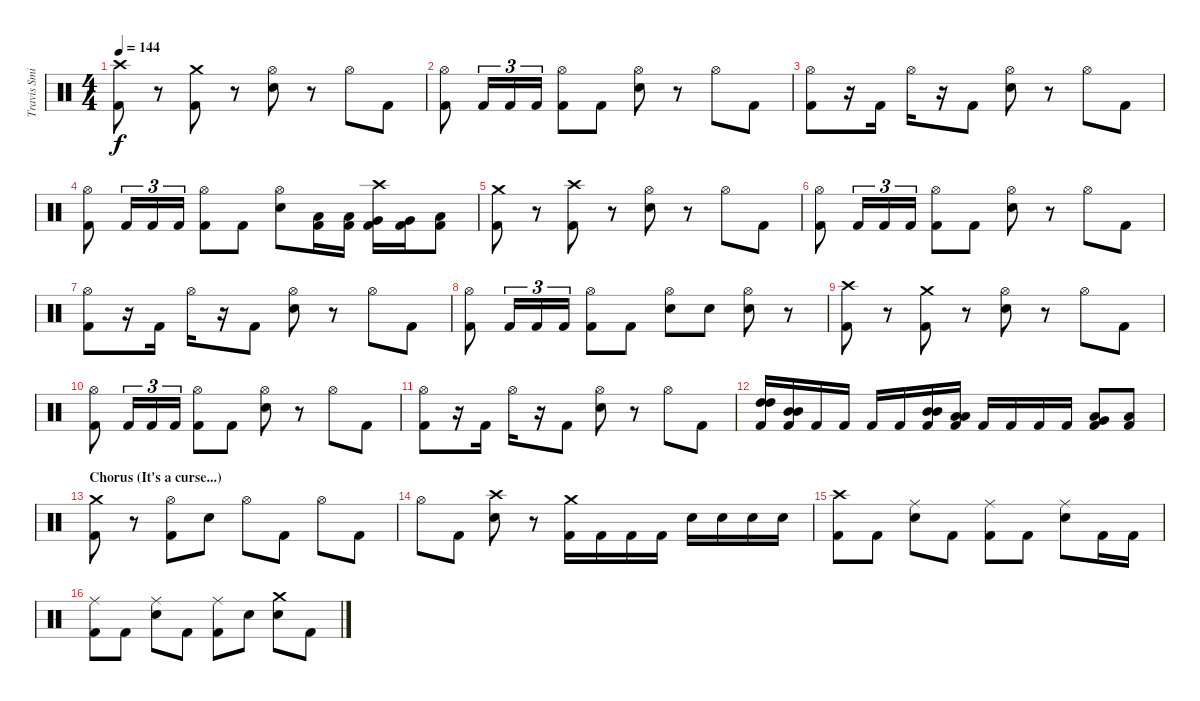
\track ("Travis Smith" "Travis Smi") {instrument percussion}
\staff {score}
\articulation defaults
\ts (4 4)
\tempo 144
\clef neutral
\ks c
("Crash high (hit)" "Kick (hit) 2").8{dy f} r.8 ("Crash medium (hit)" "Kick (hit) 2").8 r.8 ("Hi-Hat (open)" "Electric Snare (hit)").8 r.8 "Hi-Hat (open)".8 "Kick (hit) 2".8 |
("Hi-Hat (open)" "Kick (hit) 2").8 "Kick (hit) 2".16{tu (3 2)} "Kick (hit) 2".16{tu (3 2)} "Kick (hit) 2".16{tu (3 2)} ("Hi-Hat (open)" "Kick (hit) 2").8 "Kick (hit) 2".8 ("Hi-Hat (open)" "Electric Snare (hit)").8 r.8 "Hi-Hat (open)".8 "Kick (hit) 2".8 |
("Hi-Hat (open)" "Kick (hit) 2").8 r.16 "Kick (hit) 2".16 "Hi-Hat (open)".16 r.16 "Kick (hit) 2".8 ("Hi-Hat (open)" "Electric Snare (hit)").8 r.8 "Hi-Hat (open)".8 "Kick (hit) 2".8 |
("Hi-Hat (open)" "Kick (hit) 2").8 "Kick (hit) 2".16{tu (3 2)} "Kick (hit) 2".16{tu (3 2)} "Kick (hit) 2".16{tu (3 2)} ("Hi-Hat (open)" "Kick (hit) 2").8 "Kick (hit) 2".8 ("Hi-Hat (open)" "Electric Snare (hit)").8 ("Low Tom (hit)" "Kick (hit) 2").16 ("Low Tom (hit)" "Kick (hit) 2").16 ("Crash high (hit)" "Very Low Tom (hit)" "Kick (hit) 2").16 ("Very Low Tom (hit)" "Kick (hit) 2").16 ("Low Floor Tom (hit)" "Kick (hit) 2").8 |
("Crash medium (hit)" "Kick (hit) 2").8 r.8 ("Crash high (hit)" "Kick (hit) 2").8 r.8 ("Hi-Hat (open)" "Electric Snare (hit)").8 r.8 "Hi-Hat (open)".8 "Kick (hit) 2".8 |
("Hi-Hat (open)" "Kick (hit) 2").8 "Kick (hit) 2".16{tu (3 2)} "Kick (hit) 2".16{tu (3 2)} "Kick (hit) 2".16{tu (3 2)} ("Hi-Hat (open)" "Kick (hit) 2").8 "Kick (hit) 2".8 ("Hi-Hat (open)" "Electric Snare (hit)").8 r.8 "Hi-Hat (open)".8 "Kick (hit) 2".8 |
("Hi-Hat (open)" "Kick (hit) 2").8 r.16 "Kick (hit) 2".16 "Hi-Hat (open)".16 r.16 "Kick (hit) 2".8 ("Hi-Hat (open)" "Electric Snare (hit)").8 r.8 "Hi-Hat (open)".8 "Kick (hit) 2".8 |
("Hi-Hat (open)" "Kick (hit) 2").8 "Kick (hit) 2".16{tu (3 2)} "Kick (hit) 2".16{tu (3 2)} "Kick (hit) 2".16{tu (3 2)} ("Hi-Hat (open)" "Kick (hit) 2").8 "Kick (hit) 2".8 ("Hi-Hat (open)" "Electric Snare (hit)").8 "Electric Snare (hit)".8 ("Hi-Hat (open)" "Electric Snare (hit)").8 r.8 |
("Crash high (hit)" "Kick (hit) 2").8 r.8 ("Crash medium (hit)" "Kick (hit) 2").8 r.8 ("Hi-Hat (open)" "Electric Snare (hit)").8 r.8 "Hi-Hat (open)".8 "Kick (hit) 2".8 |
("Hi-Hat (open)" "Kick (hit) 2").8 "Kick (hit) 2".16{tu (3 2)} "Kick (hit) 2".16{tu (3 2)} "Kick (hit) 2".16{tu (3 2)} ("Hi-Hat (open)" "Kick (hit) 2").8 "Kick (hit) 2".8 ("Hi-Hat (open)" "Electric Snare (hit)").8 r.8 "Hi-Hat (open)".8 "Kick (hit) 2".8 |
("Hi-Hat (open)" "Kick (hit) 2").8 r.16 "Kick (hit) 2".16 "Hi-Hat (open)".16 r.16 "Kick (hit) 2".8 ("Hi-Hat (open)" "Electric Snare (hit)").8 r.8 "Hi-Hat (open)".8 "Kick (hit) 2".8 |
("High Tom (hit)" "High Tom (hit)" "Kick (hit) 2").16 ("Mid Tom (hit)" "Mid Tom (hit)" "Kick (hit) 2").16 "Kick (hit) 2".16 "Kick (hit) 2".16 "Kick (hit) 2".16 "Kick (hit) 2".16 ("Mid Tom (hit)" "Mid Tom (hit)" "Kick (hit) 2").16 ("Low Tom (hit)" "Low Tom (hit)" "Kick (hit) 2").16 "Kick (hit) 2".16 "Kick (hit) 2".16 "Kick (hit) 2".16 "Kick (hit) 2".16 ("Very Low Tom (hit)" "Low Tom (hit)" "Kick (hit) 2").8 ("Low Floor Tom (hit)" "Kick (hit) 2").8 |
\section ("" "Chorus (It's a curse...)")
("Crash medium (hit)" "Kick (hit) 2").8 r.8 ("Hi-Hat (open)" "Kick (hit) 2").8 "Electric Snare (hit)".8 "Hi-Hat (open)".8 "Kick (hit) 2".8 "Hi-Hat (open)".8 "Kick (hit) 2".8 |
"Hi-Hat (open)".8 "Kick (hit) 2".8 ("Crash high (hit)" "Electric Snare (hit)").8 r.8 ("Crash medium (hit)" "Kick (hit) 2").16 "Kick (hit) 2".16 "Kick (hit) 2".16 "Kick (hit) 2".16 "Electric Snare (hit)".16 "Electric Snare (hit)".16 "Electric Snare (hit)".16 "Electric Snare (hit)".16 |
("Crash high (hit)" "Kick (hit) 2").8 "Kick (hit) 2".8 ("Ride (middle)" "Electric Snare (hit)").8 "Kick (hit) 2".8 ("Ride (middle)" "Kick (hit) 2").8 "Kick (hit) 2".8 ("Ride (middle)" "Electric Snare (hit)").8 "Kick (hit) 2".16 "Kick (hit) 2".16 |
("Ride (middle)" "Kick (hit) 2").8 "Kick (hit) 2".8 ("Ride (middle)" "Electric Snare (hit)").8 "Kick (hit) 2".8 ("Ride (middle)" "Kick (hit) 2").8 "Electric Snare (hit)".8 ("Crash medium (hit)" "Electric Snare (hit)").8 "Kick (hit) 2".8
